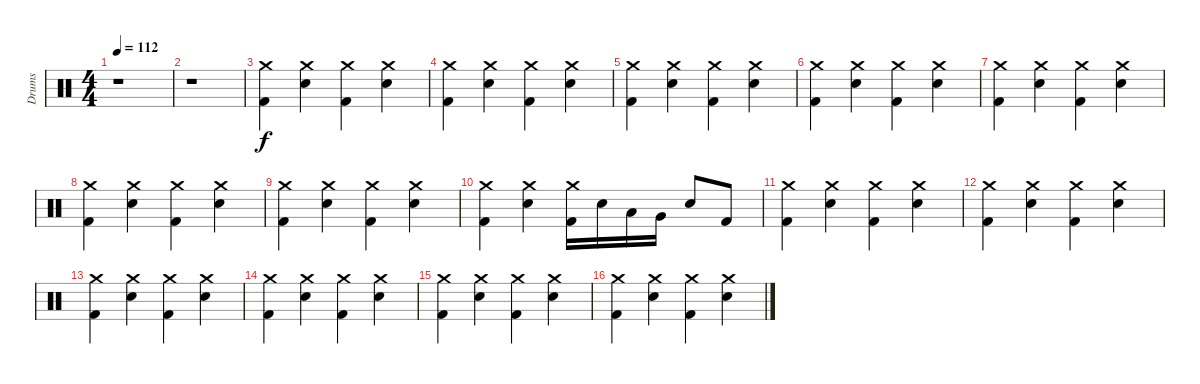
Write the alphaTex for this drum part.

\track ("Drums" "Drums") {instrument percussion}
\staff {score}
\articulation defaults
\ts (4 4)
\tempo 112
\clef neutral
\ks c
r.1{dy f} |
r.1 |
("Crash medium (hit)" "Kick (hit) 2").4 ("Crash medium (hit)" "Electric Snare (hit)").4 ("Crash medium (hit)" "Kick (hit) 2").4 ("Crash medium (hit)" "Electric Snare (hit)").4 |
("Crash medium (hit)" "Kick (hit) 2").4 ("Crash medium (hit)" "Electric Snare (hit)").4 ("Crash medium (hit)" "Kick (hit) 2").4 ("Crash medium (hit)" "Electric Snare (hit)").4 |
("Crash medium (hit)" "Kick (hit) 2").4 ("Crash medium (hit)" "Electric Snare (hit)").4 ("Crash medium (hit)" "Kick (hit) 2").4 ("Crash medium (hit)" "Electric Snare (hit)").4 |
("Crash medium (hit)" "Kick (hit) 2").4 ("Crash medium (hit)" "Electric Snare (hit)").4 ("Crash medium (hit)" "Kick (hit) 2").4 ("Crash medium (hit)" "Electric Snare (hit)").4 |
("Crash medium (hit)" "Kick (hit) 2").4 ("Crash medium (hit)" "Electric Snare (hit)").4 ("Crash medium (hit)" "Kick (hit) 2").4 ("Crash medium (hit)" "Electric Snare (hit)").4 |
("Crash medium (hit)" "Kick (hit) 2").4 ("Crash medium (hit)" "Electric Snare (hit)").4 ("Crash medium (hit)" "Kick (hit) 2").4 ("Crash medium (hit)" "Electric Snare (hit)").4 |
("Crash medium (hit)" "Kick (hit) 2").4 ("Crash medium (hit)" "Electric Snare (hit)").4 ("Crash medium (hit)" "Kick (hit) 2").4 ("Crash medium (hit)" "Electric Snare (hit)").4 |
("Crash medium (hit)" "Kick (hit) 2").4 ("Crash medium (hit)" "Electric Snare (hit)").4 ("Crash medium (hit)" "Kick (hit) 2").16 "Electric Snare (hit)".16 "Low Tom (hit)".16 "Very Low Tom (hit)".16 "Electric Snare (hit)".8 "Kick (hit) 2".8 |
("Crash medium (hit)" "Kick (hit) 2").4 ("Crash medium (hit)" "Electric Snare (hit)").4 ("Crash medium (hit)" "Kick (hit) 2").4 ("Crash medium (hit)" "Electric Snare (hit)").4 |
("Crash medium (hit)" "Kick (hit) 2").4 ("Crash medium (hit)" "Electric Snare (hit)").4 ("Crash medium (hit)" "Kick (hit) 2").4 ("Crash medium (hit)" "Electric Snare (hit)").4 |
("Crash medium (hit)" "Kick (hit) 2").4 ("Crash medium (hit)" "Electric Snare (hit)").4 ("Crash medium (hit)" "Kick (hit) 2").4 ("Crash medium (hit)" "Electric Snare (hit)").4 |
("Crash medium (hit)" "Kick (hit) 2").4 ("Crash medium (hit)" "Electric Snare (hit)").4 ("Crash medium (hit)" "Kick (hit) 2").4 ("Crash medium (hit)" "Electric Snare (hit)").4 |
("Crash medium (hit)" "Kick (hit) 2").4 ("Crash medium (hit)" "Electric Snare (hit)").4 ("Crash medium (hit)" "Kick (hit) 2").4 ("Crash medium (hit)" "Electric Snare (hit)").4 |
("Crash medium (hit)" "Kick (hit) 2").4 ("Crash medium (hit)" "Electric Snare (hit)").4 ("Crash medium (hit)" "Kick (hit) 2").4 ("Crash medium (hit)" "Electric Snare (hit)").4
